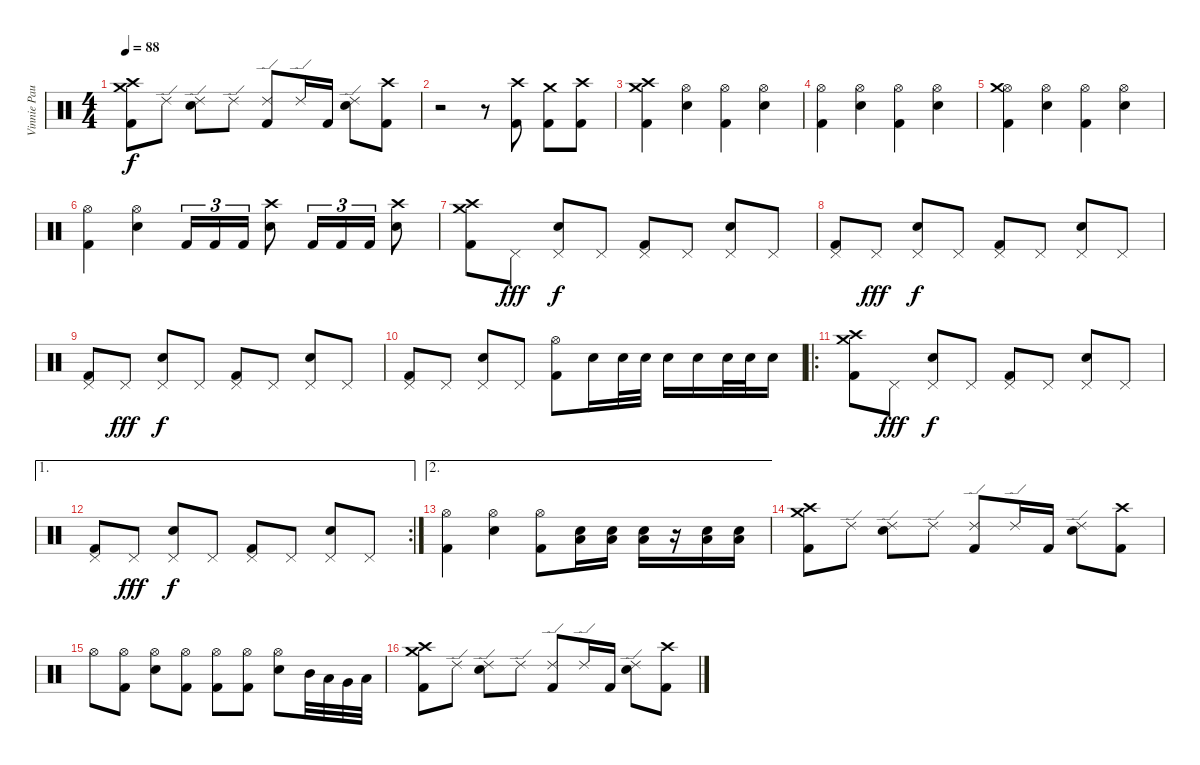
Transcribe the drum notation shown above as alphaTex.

\track ("Vinnie Paul (Drums)" "Vinnie Pau") {instrument percussion}
\staff {score}
\articulation defaults
\ts (4 4)
\tempo 88
\clef neutral
\ks c
("Crash high (hit)" "Crash medium (hit)" "Kick (hit) 2").8{dy f} "Ride (edge) 2".8 ("Ride (edge) 2" "Snare (hit) 2").8 "Ride (edge) 2".8 ("Ride (edge) 2" "Kick (hit) 2").8 "Ride (edge) 2".16 "Kick (hit) 2".16 ("Ride (edge) 2" "Snare (hit) 2").8 ("Crash high (hit)" "Kick (hit) 2").8 |
r.2 r.8 ("Crash high (hit)" "Kick (hit) 2").8 ("Crash medium (hit)" "Kick (hit) 2").8 ("Crash high (hit)" "Kick (hit) 2").8 |
("Crash high (hit)" "Crash medium (hit)" "Kick (hit) 2").4 ("Hi-Hat (open)" "Snare (hit) 2").4 ("Hi-Hat (open)" "Kick (hit) 2").4 ("Hi-Hat (open)" "Snare (hit) 2").4 |
("Hi-Hat (open)" "Kick (hit) 2").4 ("Hi-Hat (open)" "Snare (hit) 2").4 ("Hi-Hat (open)" "Kick (hit) 2").4 ("Hi-Hat (open)" "Snare (hit) 2").4 |
("Hi-Hat (open)" "Crash medium (hit)" "Kick (hit) 2").4 ("Hi-Hat (open)" "Snare (hit) 2").4 ("Hi-Hat (open)" "Kick (hit) 2").4 ("Hi-Hat (open)" "Snare (hit) 2").4 |
("Hi-Hat (open)" "Kick (hit) 2").4 ("Hi-Hat (open)" "Snare (hit) 2").4 "Kick (hit) 2".16{tu (3 2)} "Kick (hit) 2".16{tu (3 2)} "Kick (hit) 2".16{tu (3 2)} ("Crash high (hit)" "Snare (hit) 2").8 "Kick (hit) 2".16{tu (3 2)} "Kick (hit) 2".16{tu (3 2)} "Kick (hit) 2".16{tu (3 2)} ("Crash high (hit)" "Snare (hit) 2").8 |
("Crash medium (hit)" "Crash high (hit)" "Kick (hit) 2").8 "Pedal Hi-Hat (hit)".8{dy fff} ("Pedal Hi-Hat (hit)" "Snare (hit) 2").8{dy f} "Pedal Hi-Hat (hit)".8 ("Pedal Hi-Hat (hit)" "Kick (hit) 2").8 "Pedal Hi-Hat (hit)".8 ("Pedal Hi-Hat (hit)" "Snare (hit) 2").8 "Pedal Hi-Hat (hit)".8 |
("Pedal Hi-Hat (hit)" "Kick (hit) 2").8 "Pedal Hi-Hat (hit)".8{dy fff} ("Pedal Hi-Hat (hit)" "Snare (hit) 2").8{dy f} "Pedal Hi-Hat (hit)".8 ("Pedal Hi-Hat (hit)" "Kick (hit) 2").8 "Pedal Hi-Hat (hit)".8 ("Pedal Hi-Hat (hit)" "Snare (hit) 2").8 "Pedal Hi-Hat (hit)".8 |
("Pedal Hi-Hat (hit)" "Kick (hit) 2").8 "Pedal Hi-Hat (hit)".8{dy fff} ("Pedal Hi-Hat (hit)" "Snare (hit) 2").8{dy f} "Pedal Hi-Hat (hit)".8 ("Pedal Hi-Hat (hit)" "Kick (hit) 2").8 "Pedal Hi-Hat (hit)".8 ("Pedal Hi-Hat (hit)" "Snare (hit) 2").8 "Pedal Hi-Hat (hit)".8 |
("Pedal Hi-Hat (hit)" "Kick (hit) 2").8 "Pedal Hi-Hat (hit)".8 ("Pedal Hi-Hat (hit)" "Snare (hit) 2").8 "Pedal Hi-Hat (hit)".8 ("Hi-Hat (open)" "Kick (hit) 2").8 "Snare (hit) 2".16 "Snare (hit) 2".32 "Snare (hit) 2".32 "Snare (hit) 2".16 "Snare (hit) 2".16 "Snare (hit) 2".32 "Snare (hit) 2".32 "Snare (hit) 2".16 |
\ro
("Crash medium (hit)" "Crash high (hit)" "Kick (hit) 2").8 "Pedal Hi-Hat (hit)".8{dy fff} ("Pedal Hi-Hat (hit)" "Snare (hit) 2").8{dy f} "Pedal Hi-Hat (hit)".8 ("Pedal Hi-Hat (hit)" "Kick (hit) 2").8 "Pedal Hi-Hat (hit)".8 ("Pedal Hi-Hat (hit)" "Snare (hit) 2").8 "Pedal Hi-Hat (hit)".8 |
\ae 1
\rc 2
("Pedal Hi-Hat (hit)" "Kick (hit) 2").8 "Pedal Hi-Hat (hit)".8{dy fff} ("Pedal Hi-Hat (hit)" "Snare (hit) 2").8{dy f} "Pedal Hi-Hat (hit)".8 ("Pedal Hi-Hat (hit)" "Kick (hit) 2").8 "Pedal Hi-Hat (hit)".8 ("Pedal Hi-Hat (hit)" "Snare (hit) 2").8 "Pedal Hi-Hat (hit)".8 |
\ae 2
("Hi-Hat (open)" "Kick (hit) 2").4 ("Hi-Hat (open)" "Snare (hit) 2").4 ("Hi-Hat (open)" "Kick (hit) 2").8 ("Low Floor Tom (hit)" "Snare (hit) 2").16 ("Low Floor Tom (hit)" "Snare (hit) 2").16 ("Low Floor Tom (hit)" "Snare (hit) 2").16 r.16 ("Low Floor Tom (hit)" "Snare (hit) 2").16 ("Low Floor Tom (hit)" "Snare (hit) 2").16 |
("Crash high (hit)" "Crash medium (hit)" "Kick (hit) 2").8 "Ride (edge) 2".8 ("Ride (edge) 2" "Snare (hit) 2").8 "Ride (edge) 2".8 ("Ride (edge) 2" "Kick (hit) 2").8 "Ride (edge) 2".16 "Kick (hit) 2".16 ("Ride (edge) 2" "Snare (hit) 2").8 ("Crash high (hit)" "Kick (hit) 2").8 |
"Hi-Hat (open)".8 ("Hi-Hat (open)" "Kick (hit) 2").8 ("Hi-Hat (open)" "Snare (hit) 2").8 ("Hi-Hat (open)" "Kick (hit) 2").8 ("Hi-Hat (open)" "Kick (hit) 2").8 ("Hi-Hat (open)" "Kick (hit) 2").8 ("Hi-Hat (open)" "Snare (hit) 2").8 "Mid Tom (hit)".32 "Low Tom (hit)".32 "Very Low Tom (hit)".32 "Low Floor Tom (hit)".32 |
("Crash high (hit)" "Crash medium (hit)" "Kick (hit) 2").8 "Ride (edge) 2".8 ("Ride (edge) 2" "Snare (hit) 2").8 "Ride (edge) 2".8 ("Ride (edge) 2" "Kick (hit) 2").8 "Ride (edge) 2".16 "Kick (hit) 2".16 ("Ride (edge) 2" "Snare (hit) 2").8 ("Crash high (hit)" "Kick (hit) 2").8
